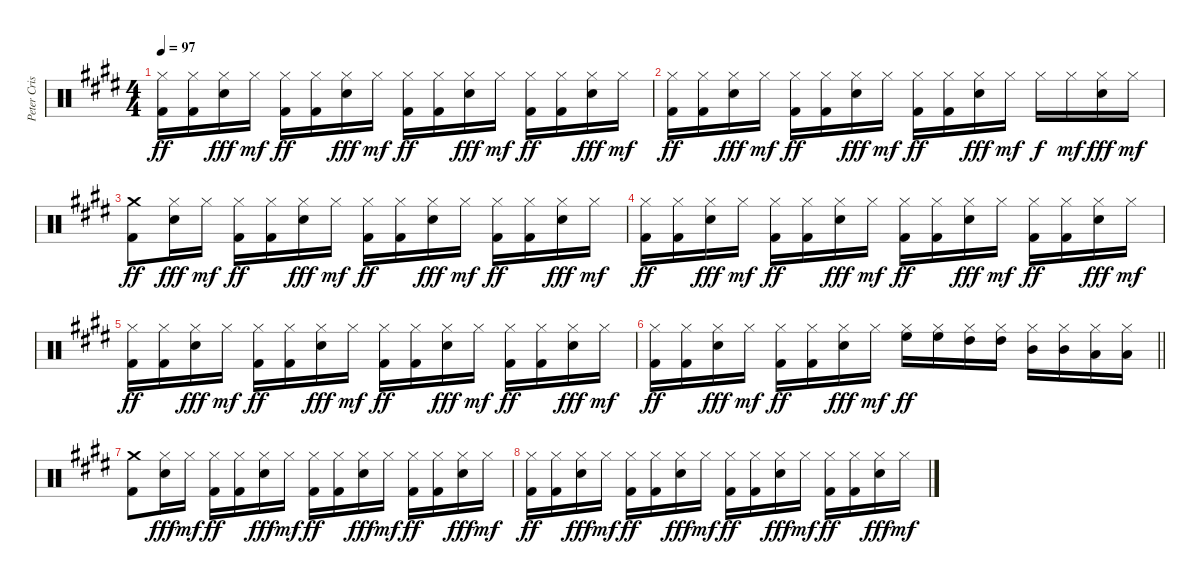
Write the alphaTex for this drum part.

\track ("Peter Criss" "Peter Cris") {instrument percussion}
\staff {score}
\articulation defaults
\ts (4 4)
\tempo 97
\clef neutral
\ks c#minor
("Hi-Hat (closed)" "Kick (hit) 2").16{dy ff} ("Hi-Hat (closed)" "Kick (hit) 2").16 ("Hi-Hat (closed)" "Snare (hit) 2").16{dy fff} "Hi-Hat (closed)".16{dy mf} ("Hi-Hat (closed)" "Kick (hit) 2").16{dy ff} ("Hi-Hat (closed)" "Kick (hit) 2").16 ("Hi-Hat (closed)" "Snare (hit) 2").16{dy fff} "Hi-Hat (closed)".16{dy mf} ("Hi-Hat (closed)" "Kick (hit) 2").16{dy ff} ("Hi-Hat (closed)" "Kick (hit) 2").16 ("Hi-Hat (closed)" "Snare (hit) 2").16{dy fff} "Hi-Hat (closed)".16{dy mf} ("Hi-Hat (closed)" "Kick (hit) 2").16{dy ff} ("Hi-Hat (closed)" "Kick (hit) 2").16 ("Hi-Hat (closed)" "Snare (hit) 2").16{dy fff} "Hi-Hat (closed)".16{dy mf} |
("Hi-Hat (closed)" "Kick (hit) 2").16{dy ff} ("Hi-Hat (closed)" "Kick (hit) 2").16 ("Hi-Hat (closed)" "Snare (hit) 2").16{dy fff} "Hi-Hat (closed)".16{dy mf} ("Hi-Hat (closed)" "Kick (hit) 2").16{dy ff} ("Hi-Hat (closed)" "Kick (hit) 2").16 ("Hi-Hat (closed)" "Snare (hit) 2").16{dy fff} "Hi-Hat (closed)".16{dy mf} ("Hi-Hat (closed)" "Kick (hit) 2").16{dy ff} ("Hi-Hat (closed)" "Kick (hit) 2").16 ("Hi-Hat (closed)" "Snare (hit) 2").16{dy fff} "Hi-Hat (closed)".16{dy mf} "Hi-Hat (closed)".16{dy f} "Hi-Hat (closed)".16{dy mf} ("Hi-Hat (closed)" "Snare (hit) 2").16{dy fff} "Hi-Hat (closed)".16{dy mf} |
("Crash medium (hit)" "Kick (hit) 2").8{dy ff} ("Hi-Hat (closed)" "Snare (hit) 2").16{dy fff} "Hi-Hat (closed)".16{dy mf} ("Hi-Hat (closed)" "Kick (hit) 2").16{dy ff} ("Hi-Hat (closed)" "Kick (hit) 2").16 ("Hi-Hat (closed)" "Snare (hit) 2").16{dy fff} "Hi-Hat (closed)".16{dy mf} ("Hi-Hat (closed)" "Kick (hit) 2").16{dy ff} ("Hi-Hat (closed)" "Kick (hit) 2").16 ("Hi-Hat (closed)" "Snare (hit) 2").16{dy fff} "Hi-Hat (closed)".16{dy mf} ("Hi-Hat (closed)" "Kick (hit) 2").16{dy ff} ("Hi-Hat (closed)" "Kick (hit) 2").16 ("Hi-Hat (closed)" "Snare (hit) 2").16{dy fff} "Hi-Hat (closed)".16{dy mf} |
("Hi-Hat (closed)" "Kick (hit) 2").16{dy ff} ("Hi-Hat (closed)" "Kick (hit) 2").16 ("Hi-Hat (closed)" "Snare (hit) 2").16{dy fff} "Hi-Hat (closed)".16{dy mf} ("Hi-Hat (closed)" "Kick (hit) 2").16{dy ff} ("Hi-Hat (closed)" "Kick (hit) 2").16 ("Hi-Hat (closed)" "Snare (hit) 2").16{dy fff} "Hi-Hat (closed)".16{dy mf} ("Hi-Hat (closed)" "Kick (hit) 2").16{dy ff} ("Hi-Hat (closed)" "Kick (hit) 2").16 ("Hi-Hat (closed)" "Snare (hit) 2").16{dy fff} "Hi-Hat (closed)".16{dy mf} ("Hi-Hat (closed)" "Kick (hit) 2").16{dy ff} ("Hi-Hat (closed)" "Kick (hit) 2").16 ("Hi-Hat (closed)" "Snare (hit) 2").16{dy fff} "Hi-Hat (closed)".16{dy mf} |
("Hi-Hat (closed)" "Kick (hit) 2").16{dy ff} ("Hi-Hat (closed)" "Kick (hit) 2").16 ("Hi-Hat (closed)" "Snare (hit) 2").16{dy fff} "Hi-Hat (closed)".16{dy mf} ("Hi-Hat (closed)" "Kick (hit) 2").16{dy ff} ("Hi-Hat (closed)" "Kick (hit) 2").16 ("Hi-Hat (closed)" "Snare (hit) 2").16{dy fff} "Hi-Hat (closed)".16{dy mf} ("Hi-Hat (closed)" "Kick (hit) 2").16{dy ff} ("Hi-Hat (closed)" "Kick (hit) 2").16 ("Hi-Hat (closed)" "Snare (hit) 2").16{dy fff} "Hi-Hat (closed)".16{dy mf} ("Hi-Hat (closed)" "Kick (hit) 2").16{dy ff} ("Hi-Hat (closed)" "Kick (hit) 2").16 ("Hi-Hat (closed)" "Snare (hit) 2").16{dy fff} "Hi-Hat (closed)".16{dy mf} |
\barLineRight lightlight
("Hi-Hat (closed)" "Kick (hit) 2").16{dy ff} ("Hi-Hat (closed)" "Kick (hit) 2").16 ("Hi-Hat (closed)" "Snare (hit) 2").16{dy fff} "Hi-Hat (closed)".16{dy mf} ("Hi-Hat (closed)" "Kick (hit) 2").16{dy ff} ("Hi-Hat (closed)" "Kick (hit) 2").16 ("Hi-Hat (closed)" "Snare (hit) 2").16{dy fff} "Hi-Hat (closed)".16{dy mf} ("Hi-Hat (closed)" "High Floor Tom (hit)").16{dy ff} ("Hi-Hat (closed)" "High Floor Tom (hit)").16 ("Hi-Hat (closed)" "High Tom (hit)").16 ("Hi-Hat (closed)" "High Tom (hit)").16 ("Hi-Hat (closed)" "Mid Tom (hit)").16 ("Hi-Hat (closed)" "Mid Tom (hit)").16 ("Hi-Hat (closed)" "Low Tom (hit)").16 ("Hi-Hat (closed)" "Low Tom (hit)").16 |
\section ("" "")
("Crash medium (hit)" "Kick (hit) 2").8 ("Hi-Hat (closed)" "Snare (hit) 2").16{dy fff} "Hi-Hat (closed)".16{dy mf} ("Hi-Hat (closed)" "Kick (hit) 2").16{dy ff} ("Hi-Hat (closed)" "Kick (hit) 2").16 ("Hi-Hat (closed)" "Snare (hit) 2").16{dy fff} "Hi-Hat (closed)".16{dy mf} ("Hi-Hat (closed)" "Kick (hit) 2").16{dy ff} ("Hi-Hat (closed)" "Kick (hit) 2").16 ("Hi-Hat (closed)" "Snare (hit) 2").16{dy fff} "Hi-Hat (closed)".16{dy mf} ("Hi-Hat (closed)" "Kick (hit) 2").16{dy ff} ("Hi-Hat (closed)" "Kick (hit) 2").16 ("Hi-Hat (closed)" "Snare (hit) 2").16{dy fff} "Hi-Hat (closed)".16{dy mf} |
("Hi-Hat (closed)" "Kick (hit) 2").16{dy ff} ("Hi-Hat (closed)" "Kick (hit) 2").16 ("Hi-Hat (closed)" "Snare (hit) 2").16{dy fff} "Hi-Hat (closed)".16{dy mf} ("Hi-Hat (closed)" "Kick (hit) 2").16{dy ff} ("Hi-Hat (closed)" "Kick (hit) 2").16 ("Hi-Hat (closed)" "Snare (hit) 2").16{dy fff} "Hi-Hat (closed)".16{dy mf} ("Hi-Hat (closed)" "Kick (hit) 2").16{dy ff} ("Hi-Hat (closed)" "Kick (hit) 2").16 ("Hi-Hat (closed)" "Snare (hit) 2").16{dy fff} "Hi-Hat (closed)".16{dy mf} ("Hi-Hat (closed)" "Kick (hit) 2").16{dy ff} ("Hi-Hat (closed)" "Kick (hit) 2").16 ("Hi-Hat (closed)" "Snare (hit) 2").16{dy fff} "Hi-Hat (closed)".16{dy mf}
